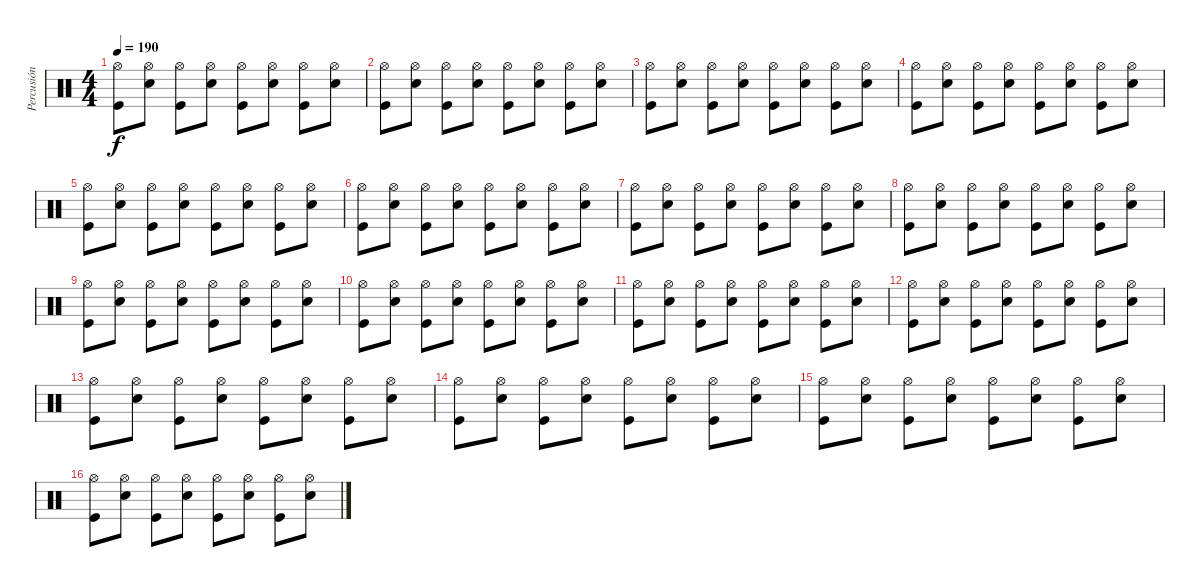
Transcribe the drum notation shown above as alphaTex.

\track ("Percusión" "Percusión") {instrument percussion}
\staff {score}
\articulation defaults
\ts (4 4)
\tempo 190
\clef neutral
\ks c
("Hi-Hat (open)" "Kick (hit)").8{dy f} ("Hi-Hat (open)" "Snare (hit) 2").8 ("Hi-Hat (open)" "Kick (hit)").8 ("Hi-Hat (open)" "Snare (hit) 2").8 ("Hi-Hat (open)" "Kick (hit)").8 ("Hi-Hat (open)" "Snare (hit) 2").8 ("Hi-Hat (open)" "Kick (hit)").8 ("Hi-Hat (open)" "Snare (hit) 2").8 |
("Hi-Hat (open)" "Kick (hit)").8 ("Hi-Hat (open)" "Snare (hit) 2").8 ("Hi-Hat (open)" "Kick (hit)").8 ("Hi-Hat (open)" "Snare (hit) 2").8 ("Hi-Hat (open)" "Kick (hit)").8 ("Hi-Hat (open)" "Snare (hit) 2").8 ("Hi-Hat (open)" "Kick (hit)").8 ("Hi-Hat (open)" "Snare (hit) 2").8 |
("Hi-Hat (open)" "Kick (hit)").8 ("Hi-Hat (open)" "Snare (hit) 2").8 ("Hi-Hat (open)" "Kick (hit)").8 ("Hi-Hat (open)" "Snare (hit) 2").8 ("Hi-Hat (open)" "Kick (hit)").8 ("Hi-Hat (open)" "Snare (hit) 2").8 ("Hi-Hat (open)" "Kick (hit)").8 ("Hi-Hat (open)" "Snare (hit) 2").8 |
("Hi-Hat (open)" "Kick (hit)").8 ("Hi-Hat (open)" "Snare (hit) 2").8 ("Hi-Hat (open)" "Kick (hit)").8 ("Hi-Hat (open)" "Snare (hit) 2").8 ("Hi-Hat (open)" "Kick (hit)").8 ("Hi-Hat (open)" "Snare (hit) 2").8 ("Hi-Hat (open)" "Kick (hit)").8 ("Hi-Hat (open)" "Snare (hit) 2").8 |
("Hi-Hat (open)" "Kick (hit)").8 ("Hi-Hat (open)" "Snare (hit) 2").8 ("Hi-Hat (open)" "Kick (hit)").8 ("Hi-Hat (open)" "Snare (hit) 2").8 ("Hi-Hat (open)" "Kick (hit)").8 ("Hi-Hat (open)" "Snare (hit) 2").8 ("Hi-Hat (open)" "Kick (hit)").8 ("Hi-Hat (open)" "Snare (hit) 2").8 |
("Hi-Hat (open)" "Kick (hit)").8 ("Hi-Hat (open)" "Snare (hit) 2").8 ("Hi-Hat (open)" "Kick (hit)").8 ("Hi-Hat (open)" "Snare (hit) 2").8 ("Hi-Hat (open)" "Kick (hit)").8 ("Hi-Hat (open)" "Snare (hit) 2").8 ("Hi-Hat (open)" "Kick (hit)").8 ("Hi-Hat (open)" "Snare (hit) 2").8 |
("Hi-Hat (open)" "Kick (hit)").8 ("Hi-Hat (open)" "Snare (hit) 2").8 ("Hi-Hat (open)" "Kick (hit)").8 ("Hi-Hat (open)" "Snare (hit) 2").8 ("Hi-Hat (open)" "Kick (hit)").8 ("Hi-Hat (open)" "Snare (hit) 2").8 ("Hi-Hat (open)" "Kick (hit)").8 ("Hi-Hat (open)" "Snare (hit) 2").8 |
("Hi-Hat (open)" "Kick (hit)").8 ("Hi-Hat (open)" "Snare (hit) 2").8 ("Hi-Hat (open)" "Kick (hit)").8 ("Hi-Hat (open)" "Snare (hit) 2").8 ("Hi-Hat (open)" "Kick (hit)").8 ("Hi-Hat (open)" "Snare (hit) 2").8 ("Hi-Hat (open)" "Kick (hit)").8 ("Hi-Hat (open)" "Snare (hit) 2").8 |
("Hi-Hat (open)" "Kick (hit)").8 ("Hi-Hat (open)" "Snare (hit) 2").8 ("Hi-Hat (open)" "Kick (hit)").8 ("Hi-Hat (open)" "Snare (hit) 2").8 ("Hi-Hat (open)" "Kick (hit)").8 ("Hi-Hat (open)" "Snare (hit) 2").8 ("Hi-Hat (open)" "Kick (hit)").8 ("Hi-Hat (open)" "Snare (hit) 2").8 |
("Hi-Hat (open)" "Kick (hit)").8 ("Hi-Hat (open)" "Snare (hit) 2").8 ("Hi-Hat (open)" "Kick (hit)").8 ("Hi-Hat (open)" "Snare (hit) 2").8 ("Hi-Hat (open)" "Kick (hit)").8 ("Hi-Hat (open)" "Snare (hit) 2").8 ("Hi-Hat (open)" "Kick (hit)").8 ("Hi-Hat (open)" "Snare (hit) 2").8 |
("Hi-Hat (open)" "Kick (hit)").8 ("Hi-Hat (open)" "Snare (hit) 2").8 ("Hi-Hat (open)" "Kick (hit)").8 ("Hi-Hat (open)" "Snare (hit) 2").8 ("Hi-Hat (open)" "Kick (hit)").8 ("Hi-Hat (open)" "Snare (hit) 2").8 ("Hi-Hat (open)" "Kick (hit)").8 ("Hi-Hat (open)" "Snare (hit) 2").8 |
("Hi-Hat (open)" "Kick (hit)").8 ("Hi-Hat (open)" "Snare (hit) 2").8 ("Hi-Hat (open)" "Kick (hit)").8 ("Hi-Hat (open)" "Snare (hit) 2").8 ("Hi-Hat (open)" "Kick (hit)").8 ("Hi-Hat (open)" "Snare (hit) 2").8 ("Hi-Hat (open)" "Kick (hit)").8 ("Hi-Hat (open)" "Snare (hit) 2").8 |
("Hi-Hat (open)" "Kick (hit)").8 ("Hi-Hat (open)" "Snare (hit) 2").8 ("Hi-Hat (open)" "Kick (hit)").8 ("Hi-Hat (open)" "Snare (hit) 2").8 ("Hi-Hat (open)" "Kick (hit)").8 ("Hi-Hat (open)" "Snare (hit) 2").8 ("Hi-Hat (open)" "Kick (hit)").8 ("Hi-Hat (open)" "Snare (hit) 2").8 |
("Hi-Hat (open)" "Kick (hit)").8 ("Hi-Hat (open)" "Snare (hit) 2").8 ("Hi-Hat (open)" "Kick (hit)").8 ("Hi-Hat (open)" "Snare (hit) 2").8 ("Hi-Hat (open)" "Kick (hit)").8 ("Hi-Hat (open)" "Snare (hit) 2").8 ("Hi-Hat (open)" "Kick (hit)").8 ("Hi-Hat (open)" "Snare (hit) 2").8 |
("Hi-Hat (open)" "Kick (hit)").8 ("Hi-Hat (open)" "Snare (hit) 2").8 ("Hi-Hat (open)" "Kick (hit)").8 ("Hi-Hat (open)" "Snare (hit) 2").8 ("Hi-Hat (open)" "Kick (hit)").8 ("Hi-Hat (open)" "Snare (hit) 2").8 ("Hi-Hat (open)" "Kick (hit)").8 ("Hi-Hat (open)" "Snare (hit) 2").8 |
("Hi-Hat (open)" "Kick (hit)").8 ("Hi-Hat (open)" "Snare (hit) 2").8 ("Hi-Hat (open)" "Kick (hit)").8 ("Hi-Hat (open)" "Snare (hit) 2").8 ("Hi-Hat (open)" "Kick (hit)").8 ("Hi-Hat (open)" "Snare (hit) 2").8 ("Hi-Hat (open)" "Kick (hit)").8 ("Hi-Hat (open)" "Snare (hit) 2").8
